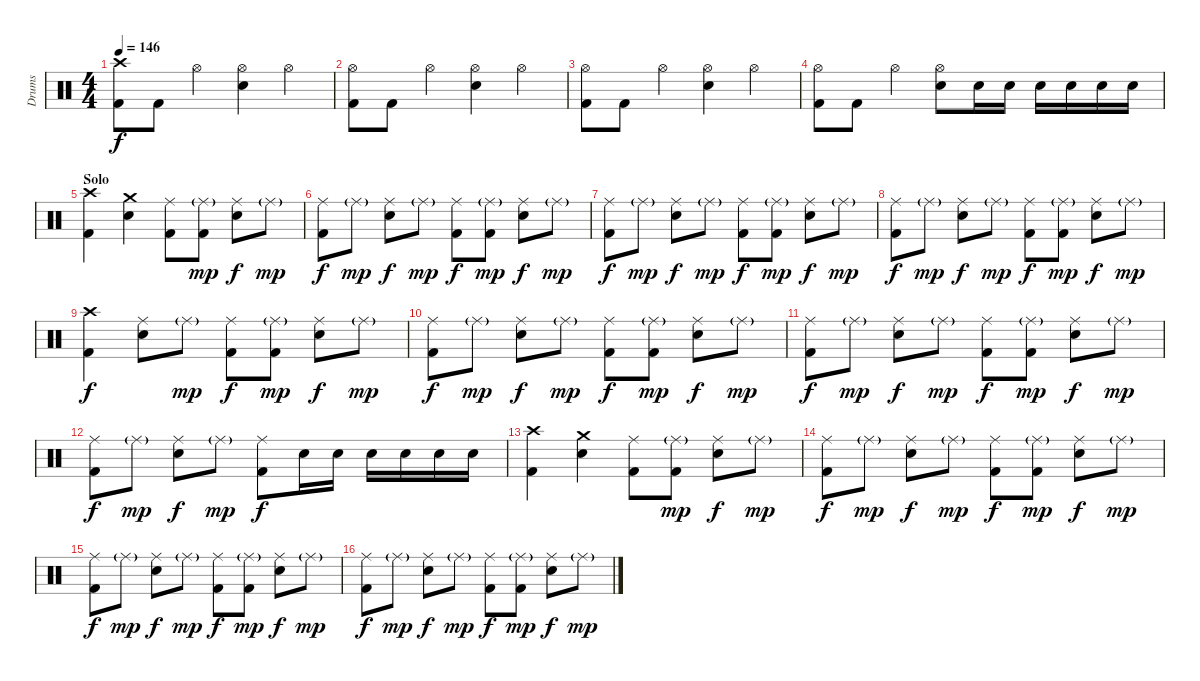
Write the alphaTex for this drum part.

\track ("Drums" "Drums") {instrument percussion}
\staff {score}
\articulation defaults
\ts (4 4)
\tempo 146
\clef neutral
\ks c
("Crash high (hit)" "Kick (hit) 2").8{dy f} "Kick (hit) 2".8 "Hi-Hat (open)".4 ("Hi-Hat (open)" "Snare (hit) 2").4 "Hi-Hat (open)".4 |
("Hi-Hat (open)" "Kick (hit) 2").8 "Kick (hit) 2".8 "Hi-Hat (open)".4 ("Hi-Hat (open)" "Snare (hit) 2").4 "Hi-Hat (open)".4 |
("Hi-Hat (open)" "Kick (hit) 2").8 "Kick (hit) 2".8 "Hi-Hat (open)".4 ("Hi-Hat (open)" "Snare (hit) 2").4 "Hi-Hat (open)".4 |
("Hi-Hat (open)" "Kick (hit) 2").8 "Kick (hit) 2".8 "Hi-Hat (open)".4 ("Hi-Hat (open)" "Snare (hit) 2").8 "Snare (hit) 2".16 "Snare (hit) 2".16 "Snare (hit) 2".16 "Snare (hit) 2".16 "Snare (hit) 2".16 "Snare (hit) 2".16 |
\section ("" "Solo")
("Crash high (hit)" "Kick (hit) 2").4 ("Crash medium (hit)" "Snare (hit) 2").4 ("Ride (middle)" "Kick (hit) 2").8 ("Ride (middle)"{g} "Kick (hit) 2").8{dy mp} ("Ride (middle)" "Snare (hit) 2").8{dy f} "Ride (middle)"{g}.8{dy mp} |
("Ride (middle)" "Kick (hit) 2").8{dy f} "Ride (middle)"{g}.8{dy mp} ("Ride (middle)" "Snare (hit) 2").8{dy f} "Ride (middle)"{g}.8{dy mp} ("Ride (middle)" "Kick (hit) 2").8{dy f} ("Ride (middle)"{g} "Kick (hit) 2").8{dy mp} ("Ride (middle)" "Snare (hit) 2").8{dy f} "Ride (middle)"{g}.8{dy mp} |
("Ride (middle)" "Kick (hit) 2").8{dy f} "Ride (middle)"{g}.8{dy mp} ("Ride (middle)" "Snare (hit) 2").8{dy f} "Ride (middle)"{g}.8{dy mp} ("Ride (middle)" "Kick (hit) 2").8{dy f} ("Ride (middle)"{g} "Kick (hit) 2").8{dy mp} ("Ride (middle)" "Snare (hit) 2").8{dy f} "Ride (middle)"{g}.8{dy mp} |
("Ride (middle)" "Kick (hit) 2").8{dy f} "Ride (middle)"{g}.8{dy mp} ("Ride (middle)" "Snare (hit) 2").8{dy f} "Ride (middle)"{g}.8{dy mp} ("Ride (middle)" "Kick (hit) 2").8{dy f} ("Ride (middle)"{g} "Kick (hit) 2").8{dy mp} ("Ride (middle)" "Snare (hit) 2").8{dy f} "Ride (middle)"{g}.8{dy mp} |
("Crash high (hit)" "Kick (hit) 2").4{dy f} ("Ride (middle)" "Snare (hit) 2").8 "Ride (middle)"{g}.8{dy mp} ("Ride (middle)" "Kick (hit) 2").8{dy f} ("Ride (middle)"{g} "Kick (hit) 2").8{dy mp} ("Ride (middle)" "Snare (hit) 2").8{dy f} "Ride (middle)"{g}.8{dy mp} |
("Ride (middle)" "Kick (hit) 2").8{dy f} "Ride (middle)"{g}.8{dy mp} ("Ride (middle)" "Snare (hit) 2").8{dy f} "Ride (middle)"{g}.8{dy mp} ("Ride (middle)" "Kick (hit) 2").8{dy f} ("Ride (middle)"{g} "Kick (hit) 2").8{dy mp} ("Ride (middle)" "Snare (hit) 2").8{dy f} "Ride (middle)"{g}.8{dy mp} |
("Ride (middle)" "Kick (hit) 2").8{dy f} "Ride (middle)"{g}.8{dy mp} ("Ride (middle)" "Snare (hit) 2").8{dy f} "Ride (middle)"{g}.8{dy mp} ("Ride (middle)" "Kick (hit) 2").8{dy f} ("Ride (middle)"{g} "Kick (hit) 2").8{dy mp} ("Ride (middle)" "Snare (hit) 2").8{dy f} "Ride (middle)"{g}.8{dy mp} |
("Ride (middle)" "Kick (hit) 2").8{dy f} "Ride (middle)"{g}.8{dy mp} ("Ride (middle)" "Snare (hit) 2").8{dy f} "Ride (middle)"{g}.8{dy mp} ("Ride (middle)" "Kick (hit) 2").8{dy f} "Snare (hit) 2".16 "Snare (hit) 2".16 "Snare (hit) 2".16 "Snare (hit) 2".16 "Snare (hit) 2".16 "Snare (hit) 2".16 |
("Crash high (hit)" "Kick (hit) 2").4 ("Crash medium (hit)" "Snare (hit) 2").4 ("Ride (middle)" "Kick (hit) 2").8 ("Ride (middle)"{g} "Kick (hit) 2").8{dy mp} ("Ride (middle)" "Snare (hit) 2").8{dy f} "Ride (middle)"{g}.8{dy mp} |
("Ride (middle)" "Kick (hit) 2").8{dy f} "Ride (middle)"{g}.8{dy mp} ("Ride (middle)" "Snare (hit) 2").8{dy f} "Ride (middle)"{g}.8{dy mp} ("Ride (middle)" "Kick (hit) 2").8{dy f} ("Ride (middle)"{g} "Kick (hit) 2").8{dy mp} ("Ride (middle)" "Snare (hit) 2").8{dy f} "Ride (middle)"{g}.8{dy mp} |
("Ride (middle)" "Kick (hit) 2").8{dy f} "Ride (middle)"{g}.8{dy mp} ("Ride (middle)" "Snare (hit) 2").8{dy f} "Ride (middle)"{g}.8{dy mp} ("Ride (middle)" "Kick (hit) 2").8{dy f} ("Ride (middle)"{g} "Kick (hit) 2").8{dy mp} ("Ride (middle)" "Snare (hit) 2").8{dy f} "Ride (middle)"{g}.8{dy mp} |
("Ride (middle)" "Kick (hit) 2").8{dy f} "Ride (middle)"{g}.8{dy mp} ("Ride (middle)" "Snare (hit) 2").8{dy f} "Ride (middle)"{g}.8{dy mp} ("Ride (middle)" "Kick (hit) 2").8{dy f} ("Ride (middle)"{g} "Kick (hit) 2").8{dy mp} ("Ride (middle)" "Snare (hit) 2").8{dy f} "Ride (middle)"{g}.8{dy mp}
